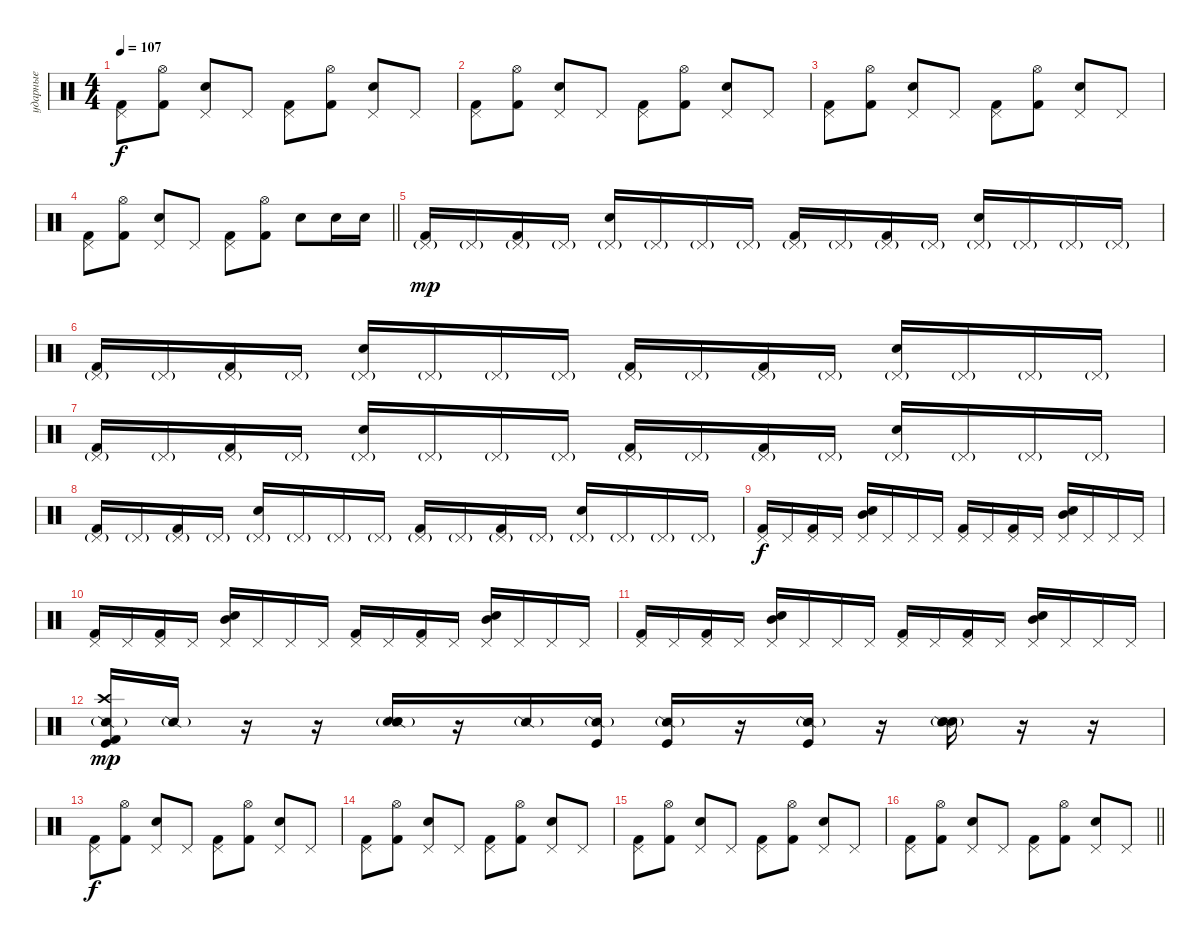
\track ("ударные" "ударные") {instrument percussion}
\staff {score}
\articulation defaults
\ts (4 4)
\tempo 107
\clef neutral
\ks c
("Kick (hit) 2" "Pedal Hi-Hat (hit)").8{dy f} ("Kick (hit) 2" "Hi-Hat (open)").8 ("Pedal Hi-Hat (hit)" "Snare (hit) 2").8 "Pedal Hi-Hat (hit)".8 ("Kick (hit) 2" "Pedal Hi-Hat (hit)").8 ("Kick (hit) 2" "Hi-Hat (open)").8 ("Pedal Hi-Hat (hit)" "Snare (hit) 2").8 "Pedal Hi-Hat (hit)".8 |
("Kick (hit) 2" "Pedal Hi-Hat (hit)").8 ("Kick (hit) 2" "Hi-Hat (open)").8 ("Pedal Hi-Hat (hit)" "Snare (hit) 2").8 "Pedal Hi-Hat (hit)".8 ("Kick (hit) 2" "Pedal Hi-Hat (hit)").8 ("Kick (hit) 2" "Hi-Hat (open)").8 ("Pedal Hi-Hat (hit)" "Snare (hit) 2").8 "Pedal Hi-Hat (hit)".8 |
("Kick (hit) 2" "Pedal Hi-Hat (hit)").8 ("Kick (hit) 2" "Hi-Hat (open)").8 ("Pedal Hi-Hat (hit)" "Snare (hit) 2").8 "Pedal Hi-Hat (hit)".8 ("Kick (hit) 2" "Pedal Hi-Hat (hit)").8 ("Kick (hit) 2" "Hi-Hat (open)").8 ("Pedal Hi-Hat (hit)" "Snare (hit) 2").8 "Pedal Hi-Hat (hit)".8 |
\barLineRight lightlight
("Kick (hit) 2" "Pedal Hi-Hat (hit)").8 ("Kick (hit) 2" "Hi-Hat (open)").8 ("Pedal Hi-Hat (hit)" "Snare (hit) 2").8 "Pedal Hi-Hat (hit)".8 ("Kick (hit) 2" "Pedal Hi-Hat (hit)").8 ("Kick (hit) 2" "Hi-Hat (open)").8 "Snare (hit) 2".8 "Snare (hit) 2".16 "Snare (hit) 2".16 |
("Kick (hit) 2" "Pedal Hi-Hat (hit)"{g}).16{dy mp} "Pedal Hi-Hat (hit)"{g}.16 ("Kick (hit) 2" "Pedal Hi-Hat (hit)"{g}).16 "Pedal Hi-Hat (hit)"{g}.16 ("Hand Clap (hit)" "Pedal Hi-Hat (hit)"{g}).16 "Pedal Hi-Hat (hit)"{g}.16 "Pedal Hi-Hat (hit)"{g}.16 "Pedal Hi-Hat (hit)"{g}.16 ("Kick (hit) 2" "Pedal Hi-Hat (hit)"{g}).16 "Pedal Hi-Hat (hit)"{g}.16 ("Kick (hit) 2" "Pedal Hi-Hat (hit)"{g}).16 "Pedal Hi-Hat (hit)"{g}.16 ("Hand Clap (hit)" "Pedal Hi-Hat (hit)"{g}).16 "Pedal Hi-Hat (hit)"{g}.16 "Pedal Hi-Hat (hit)"{g}.16 "Pedal Hi-Hat (hit)"{g}.16 |
("Kick (hit) 2" "Pedal Hi-Hat (hit)"{g}).16 "Pedal Hi-Hat (hit)"{g}.16 ("Kick (hit) 2" "Pedal Hi-Hat (hit)"{g}).16 "Pedal Hi-Hat (hit)"{g}.16 ("Hand Clap (hit)" "Pedal Hi-Hat (hit)"{g}).16 "Pedal Hi-Hat (hit)"{g}.16 "Pedal Hi-Hat (hit)"{g}.16 "Pedal Hi-Hat (hit)"{g}.16 ("Kick (hit) 2" "Pedal Hi-Hat (hit)"{g}).16 "Pedal Hi-Hat (hit)"{g}.16 ("Kick (hit) 2" "Pedal Hi-Hat (hit)"{g}).16 "Pedal Hi-Hat (hit)"{g}.16 ("Hand Clap (hit)" "Pedal Hi-Hat (hit)"{g}).16 "Pedal Hi-Hat (hit)"{g}.16 "Pedal Hi-Hat (hit)"{g}.16 "Pedal Hi-Hat (hit)"{g}.16 |
("Kick (hit) 2" "Pedal Hi-Hat (hit)"{g}).16 "Pedal Hi-Hat (hit)"{g}.16 ("Kick (hit) 2" "Pedal Hi-Hat (hit)"{g}).16 "Pedal Hi-Hat (hit)"{g}.16 ("Hand Clap (hit)" "Pedal Hi-Hat (hit)"{g}).16 "Pedal Hi-Hat (hit)"{g}.16 "Pedal Hi-Hat (hit)"{g}.16 "Pedal Hi-Hat (hit)"{g}.16 ("Kick (hit) 2" "Pedal Hi-Hat (hit)"{g}).16 "Pedal Hi-Hat (hit)"{g}.16 ("Kick (hit) 2" "Pedal Hi-Hat (hit)"{g}).16 "Pedal Hi-Hat (hit)"{g}.16 ("Hand Clap (hit)" "Pedal Hi-Hat (hit)"{g}).16 "Pedal Hi-Hat (hit)"{g}.16 "Pedal Hi-Hat (hit)"{g}.16 "Pedal Hi-Hat (hit)"{g}.16 |
("Kick (hit) 2" "Pedal Hi-Hat (hit)"{g}).16 "Pedal Hi-Hat (hit)"{g}.16 ("Kick (hit) 2" "Pedal Hi-Hat (hit)"{g}).16 "Pedal Hi-Hat (hit)"{g}.16 ("Hand Clap (hit)" "Pedal Hi-Hat (hit)"{g}).16 "Pedal Hi-Hat (hit)"{g}.16 "Pedal Hi-Hat (hit)"{g}.16 "Pedal Hi-Hat (hit)"{g}.16 ("Kick (hit) 2" "Pedal Hi-Hat (hit)"{g}).16 "Pedal Hi-Hat (hit)"{g}.16 ("Kick (hit) 2" "Pedal Hi-Hat (hit)"{g}).16 "Pedal Hi-Hat (hit)"{g}.16 ("Hand Clap (hit)" "Pedal Hi-Hat (hit)"{g}).16 "Pedal Hi-Hat (hit)"{g}.16 "Pedal Hi-Hat (hit)"{g}.16 "Pedal Hi-Hat (hit)"{g}.16 |
("Kick (hit) 2" "Pedal Hi-Hat (hit)").16{dy f} "Pedal Hi-Hat (hit)".16 ("Kick (hit) 2" "Pedal Hi-Hat (hit)").16 "Pedal Hi-Hat (hit)".16 ("Snare (hit) 2" "Pedal Hi-Hat (hit)" "Mid Tom (hit)").16 "Pedal Hi-Hat (hit)".16 "Pedal Hi-Hat (hit)".16 "Pedal Hi-Hat (hit)".16 ("Kick (hit) 2" "Pedal Hi-Hat (hit)").16 "Pedal Hi-Hat (hit)".16 ("Kick (hit) 2" "Pedal Hi-Hat (hit)").16 "Pedal Hi-Hat (hit)".16 ("Snare (hit) 2" "Pedal Hi-Hat (hit)" "Mid Tom (hit)").16 "Pedal Hi-Hat (hit)".16 "Pedal Hi-Hat (hit)".16 "Pedal Hi-Hat (hit)".16 |
("Kick (hit) 2" "Pedal Hi-Hat (hit)").16 "Pedal Hi-Hat (hit)".16 ("Kick (hit) 2" "Pedal Hi-Hat (hit)").16 "Pedal Hi-Hat (hit)".16 ("Snare (hit) 2" "Pedal Hi-Hat (hit)" "Mid Tom (hit)").16 "Pedal Hi-Hat (hit)".16 "Pedal Hi-Hat (hit)".16 "Pedal Hi-Hat (hit)".16 ("Kick (hit) 2" "Pedal Hi-Hat (hit)").16 "Pedal Hi-Hat (hit)".16 ("Kick (hit) 2" "Pedal Hi-Hat (hit)").16 "Pedal Hi-Hat (hit)".16 ("Snare (hit) 2" "Pedal Hi-Hat (hit)" "Mid Tom (hit)").16 "Pedal Hi-Hat (hit)".16 "Pedal Hi-Hat (hit)".16 "Pedal Hi-Hat (hit)".16 |
("Kick (hit) 2" "Pedal Hi-Hat (hit)").16 "Pedal Hi-Hat (hit)".16 ("Kick (hit) 2" "Pedal Hi-Hat (hit)").16 "Pedal Hi-Hat (hit)".16 ("Snare (hit) 2" "Pedal Hi-Hat (hit)" "Mid Tom (hit)").16 "Pedal Hi-Hat (hit)".16 "Pedal Hi-Hat (hit)".16 "Pedal Hi-Hat (hit)".16 ("Kick (hit) 2" "Pedal Hi-Hat (hit)").16 "Pedal Hi-Hat (hit)".16 ("Kick (hit) 2" "Pedal Hi-Hat (hit)").16 "Pedal Hi-Hat (hit)".16 ("Snare (hit) 2" "Pedal Hi-Hat (hit)" "Mid Tom (hit)").16 "Pedal Hi-Hat (hit)".16 "Pedal Hi-Hat (hit)".16 "Pedal Hi-Hat (hit)".16 |
("Kick (hit) 2" "Crash high (hit)" "Kick (hit)" "Snare (side stick) 2"{g}).16{dy mp} "Snare (side stick) 2"{g}.16 r.16 r.16 ("Hand Clap (hit)" "Electric Snare (hit)" "Snare (side stick) 2"{g}).16 r.16 "Snare (side stick) 2"{g}.16 ("Kick (hit)" "Snare (side stick) 2"{g}).16 ("Kick (hit)" "Snare (side stick) 2"{g}).16 r.16 ("Kick (hit)" "Snare (side stick) 2"{g}).16 r.16 ("Hand Clap (hit)" "Electric Snare (hit)" "Snare (side stick) 2"{g}).16 r.16 r.16 |
("Kick (hit) 2" "Pedal Hi-Hat (hit)").8{dy f} ("Kick (hit) 2" "Hi-Hat (open)").8 ("Pedal Hi-Hat (hit)" "Snare (hit) 2").8 "Pedal Hi-Hat (hit)".8 ("Kick (hit) 2" "Pedal Hi-Hat (hit)").8 ("Kick (hit) 2" "Hi-Hat (open)").8 ("Pedal Hi-Hat (hit)" "Snare (hit) 2").8 "Pedal Hi-Hat (hit)".8 |
("Kick (hit) 2" "Pedal Hi-Hat (hit)").8 ("Kick (hit) 2" "Hi-Hat (open)").8 ("Pedal Hi-Hat (hit)" "Snare (hit) 2").8 "Pedal Hi-Hat (hit)".8 ("Kick (hit) 2" "Pedal Hi-Hat (hit)").8 ("Kick (hit) 2" "Hi-Hat (open)").8 ("Pedal Hi-Hat (hit)" "Snare (hit) 2").8 "Pedal Hi-Hat (hit)".8 |
("Kick (hit) 2" "Pedal Hi-Hat (hit)").8 ("Kick (hit) 2" "Hi-Hat (open)").8 ("Pedal Hi-Hat (hit)" "Snare (hit) 2").8 "Pedal Hi-Hat (hit)".8 ("Kick (hit) 2" "Pedal Hi-Hat (hit)").8 ("Kick (hit) 2" "Hi-Hat (open)").8 ("Pedal Hi-Hat (hit)" "Snare (hit) 2").8 "Pedal Hi-Hat (hit)".8 |
\barLineRight lightlight
("Kick (hit) 2" "Pedal Hi-Hat (hit)").8 ("Kick (hit) 2" "Hi-Hat (open)").8 ("Pedal Hi-Hat (hit)" "Snare (hit) 2").8 "Pedal Hi-Hat (hit)".8 ("Kick (hit) 2" "Pedal Hi-Hat (hit)").8 ("Kick (hit) 2" "Hi-Hat (open)").8 ("Pedal Hi-Hat (hit)" "Snare (hit) 2").8 "Pedal Hi-Hat (hit)".8
